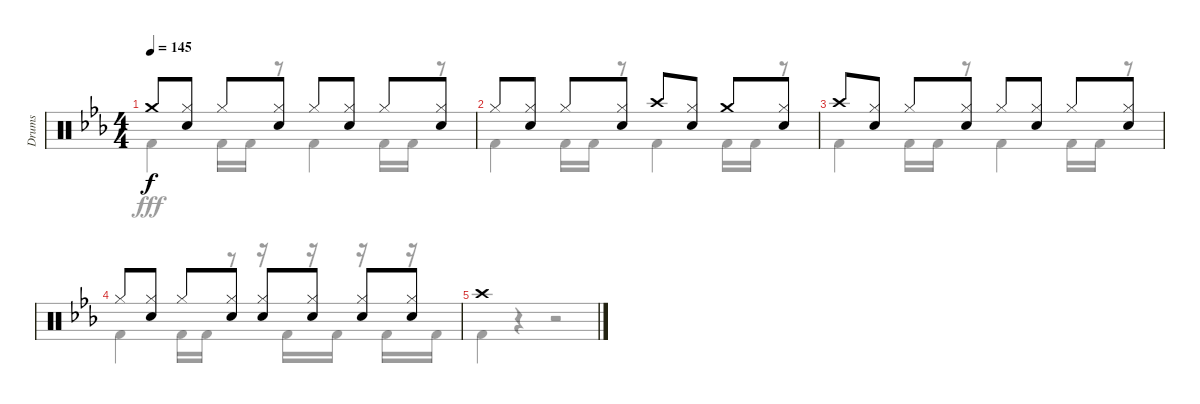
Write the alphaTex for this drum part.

\track ("Drums" "Drums") {instrument percussion}
\staff {score}
\articulation defaults
\voice
\ts (4 4)
\tempo 145
\clef neutral
\ks eb "Crash medium (hit)".8{dy f}
("Hi-Hat (closed)" "Snare (hit) 2").8 "Hi-Hat (closed)".8 ("Hi-Hat (closed)" "Snare (hit) 2").8 "Hi-Hat (closed)".8 ("Hi-Hat (closed)" "Snare (hit) 2").8 "Hi-Hat (closed)".8 ("Hi-Hat (closed)" "Snare (hit) 2").8 |
"Hi-Hat (closed)".8 ("Hi-Hat (closed)" "Snare (hit) 2").8 "Hi-Hat (closed)".8 ("Hi-Hat (closed)" "Snare (hit) 2").8 "Crash high (hit)".8 ("Hi-Hat (closed)" "Snare (hit) 2").8 "Crash medium (hit)".8 ("Hi-Hat (closed)" "Snare (hit) 2").8 |
"Crash high (hit)".8 ("Hi-Hat (closed)" "Snare (hit) 2").8 "Hi-Hat (closed)".8 ("Hi-Hat (closed)" "Snare (hit) 2").8 "Hi-Hat (closed)".8 ("Hi-Hat (closed)" "Snare (hit) 2").8 "Hi-Hat (closed)".8 ("Hi-Hat (closed)" "Snare (hit) 2").8 |
"Hi-Hat (closed)".8 ("Hi-Hat (closed)" "Snare (hit) 2").8 "Hi-Hat (closed)".8 ("Hi-Hat (closed)" "Snare (hit) 2").8 ("Hi-Hat (closed)" "Snare (hit) 2").8 ("Hi-Hat (closed)" "Snare (hit) 2").8 ("Hi-Hat (closed)" "Snare (hit) 2").8 ("Hi-Hat (closed)" "Snare (hit) 2").8 |
"Crash high (hit)".1
\voice
\clef neutral
\ottava regular
\simile none
\ks eb "Kick (hit) 2".4{dy fff} "Kick (hit) 2".16 "Kick (hit) 2".16
r.8 "Kick (hit) 2".4 "Kick (hit) 2".16 "Kick (hit) 2".16 r.8 |
"Kick (hit) 2".4 "Kick (hit) 2".16 "Kick (hit) 2".16 r.8 "Kick (hit) 2".4 "Kick (hit) 2".16 "Kick (hit) 2".16 r.8 |
"Kick (hit) 2".4 "Kick (hit) 2".16 "Kick (hit) 2".16 r.8 "Kick (hit) 2".4 "Kick (hit) 2".16 "Kick (hit) 2".16 r.8 |
"Kick (hit) 2".4 "Kick (hit) 2".16 "Kick (hit) 2".16 r.8 r.16 "Kick (hit) 2".16 r.16 "Kick (hit) 2".16 r.16 "Kick (hit) 2".16 r.16 "Kick (hit) 2".16 |
"Kick (hit) 2".4 r.4 r.2
